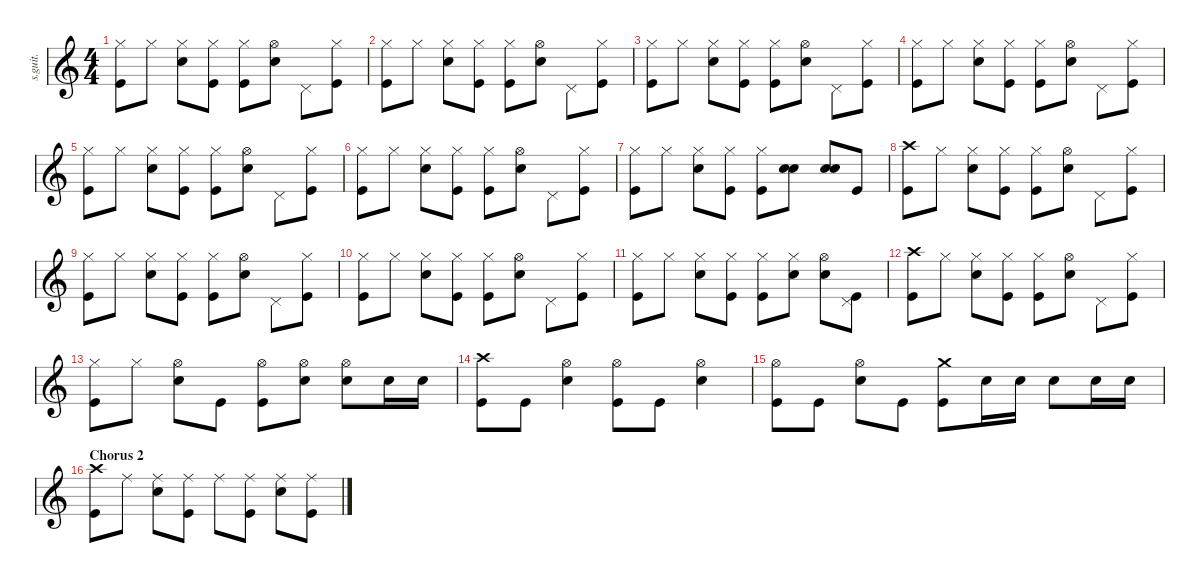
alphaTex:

\defaultSystemsLayout 4
\hideDynamics
\bracketExtendMode nobrackets
\track ("Dave Grohl" "s.guit.") {instrument percussion}
\staff {score}
\articulation defaults
\ts (4 4)
\tempo (136 hide)
\clef g2
\ks c
("Hi-Hat (closed)" "Kick (hit)").8{dy f} "Hi-Hat (closed)".8{dy ppp} ("Hi-Hat (closed)" "Snare (hit) 2").8{dy f} ("Hi-Hat (closed)" "Kick (hit)").8 ("Hi-Hat (closed)" "Kick (hit)").8 ("Hi-Hat (open)" "Snare (hit) 2").8 "Pedal Hi-Hat (hit)".8 ("Hi-Hat (closed)" "Kick (hit)").8 |
("Hi-Hat (closed)" "Kick (hit)").8 "Hi-Hat (closed)".8{dy ppp} ("Hi-Hat (closed)" "Snare (hit) 2").8{dy f} ("Hi-Hat (closed)" "Kick (hit)").8 ("Hi-Hat (closed)" "Kick (hit)").8 ("Hi-Hat (open)" "Snare (hit) 2").8 "Pedal Hi-Hat (hit)".8 ("Hi-Hat (closed)" "Kick (hit)").8 |
("Hi-Hat (closed)" "Kick (hit)").8 "Hi-Hat (closed)".8{dy ppp} ("Hi-Hat (closed)" "Snare (hit) 2").8{dy f} ("Hi-Hat (closed)" "Kick (hit)").8 ("Hi-Hat (closed)" "Kick (hit)").8 ("Hi-Hat (open)" "Snare (hit) 2").8 "Pedal Hi-Hat (hit)".8 ("Hi-Hat (closed)" "Kick (hit)").8 |
("Hi-Hat (closed)" "Kick (hit)").8 "Hi-Hat (closed)".8{dy ppp} ("Hi-Hat (closed)" "Snare (hit) 2").8{dy f} ("Hi-Hat (closed)" "Kick (hit)").8 ("Hi-Hat (closed)" "Kick (hit)").8 ("Hi-Hat (open)" "Snare (hit) 2").8 "Pedal Hi-Hat (hit)".8 ("Hi-Hat (closed)" "Kick (hit)").8 |
("Hi-Hat (closed)" "Kick (hit)").8 "Hi-Hat (closed)".8{dy ppp} ("Hi-Hat (closed)" "Snare (hit) 2").8{dy f} ("Hi-Hat (closed)" "Kick (hit)").8 ("Hi-Hat (closed)" "Kick (hit)").8 ("Hi-Hat (open)" "Snare (hit) 2").8 "Pedal Hi-Hat (hit)".8 ("Hi-Hat (closed)" "Kick (hit)").8 |
("Hi-Hat (closed)" "Kick (hit)").8 "Hi-Hat (closed)".8{dy ppp} ("Hi-Hat (closed)" "Snare (hit) 2").8{dy f} ("Hi-Hat (closed)" "Kick (hit)").8 ("Hi-Hat (closed)" "Kick (hit)").8 ("Hi-Hat (open)" "Snare (hit) 2").8 "Pedal Hi-Hat (hit)".8 ("Hi-Hat (closed)" "Kick (hit)").8 |
("Hi-Hat (closed)" "Kick (hit)").8 "Hi-Hat (closed)".8{dy ppp} ("Hi-Hat (closed)" "Snare (hit) 2").8{dy f} ("Hi-Hat (closed)" "Kick (hit)").8 ("Hi-Hat (closed)" "Kick (hit)").8 ("Snare (hit) 2" "Snare (hit) 2").8{bd 30} ("Snare (hit) 2" "Snare (hit) 2").8{bd 30} "Kick (hit)".8 |
("Crash high (hit)" "Kick (hit)").8 "Hi-Hat (closed)".8{dy ppp} ("Hi-Hat (closed)" "Snare (hit) 2").8{dy f} ("Hi-Hat (closed)" "Kick (hit)").8 ("Hi-Hat (closed)" "Kick (hit)").8 ("Hi-Hat (open)" "Snare (hit) 2").8 "Pedal Hi-Hat (hit)".8 ("Hi-Hat (closed)" "Kick (hit)").8 |
("Hi-Hat (closed)" "Kick (hit)").8 "Hi-Hat (closed)".8{dy ppp} ("Hi-Hat (closed)" "Snare (hit) 2").8{dy f} ("Hi-Hat (closed)" "Kick (hit)").8 ("Hi-Hat (closed)" "Kick (hit)").8 ("Hi-Hat (open)" "Snare (hit) 2").8 "Pedal Hi-Hat (hit)".8 ("Hi-Hat (closed)" "Kick (hit)").8 |
("Hi-Hat (closed)" "Kick (hit)").8 "Hi-Hat (closed)".8{dy ppp} ("Hi-Hat (closed)" "Snare (hit) 2").8{dy f} ("Hi-Hat (closed)" "Kick (hit)").8 ("Hi-Hat (closed)" "Kick (hit)").8 ("Hi-Hat (open)" "Snare (hit) 2").8 "Pedal Hi-Hat (hit)".8 ("Hi-Hat (closed)" "Kick (hit)").8 |
("Hi-Hat (closed)" "Kick (hit)").8 "Hi-Hat (closed)".8{dy ppp} ("Hi-Hat (closed)" "Snare (hit) 2").8{dy f} ("Hi-Hat (closed)" "Kick (hit)").8 ("Hi-Hat (closed)" "Kick (hit)").8 ("Hi-Hat (closed)" "Snare (hit) 2").8 ("Hi-Hat (open)" "Snare (hit) 2").8 ("Pedal Hi-Hat (hit)" "Kick (hit)").8 |
("Crash high (hit)" "Kick (hit)").8 "Hi-Hat (closed)".8{dy ppp} ("Hi-Hat (closed)" "Snare (hit) 2").8{dy f} ("Hi-Hat (closed)" "Kick (hit)").8 ("Hi-Hat (closed)" "Kick (hit)").8 ("Hi-Hat (open)" "Snare (hit) 2").8 "Pedal Hi-Hat (hit)".8 ("Hi-Hat (closed)" "Kick (hit)").8 |
("Hi-Hat (closed)" "Kick (hit)").8 "Hi-Hat (closed)".8{dy ppp} ("Hi-Hat (open)" "Snare (hit) 2").8{dy f} "Kick (hit)".8 ("Hi-Hat (open)" "Kick (hit)").8 ("Hi-Hat (open)" "Snare (hit) 2").8 ("Hi-Hat (open)" "Snare (hit) 2").8 "Snare (hit) 2".16 "Snare (hit) 2".16 |
("Crash high (hit)" "Kick (hit)").8 "Kick (hit)".8 ("Hi-Hat (open)" "Snare (hit) 2").4 ("Hi-Hat (open)" "Kick (hit)").8 "Kick (hit)".8 ("Hi-Hat (open)" "Snare (hit) 2").4 |
("Hi-Hat (open)" "Kick (hit)").8 "Kick (hit)".8 ("Hi-Hat (open)" "Snare (hit) 2").8 "Kick (hit)".8 ("Crash medium (hit)" "Kick (hit)").8 "Snare (hit) 2".16 "Snare (hit) 2".16 "Snare (hit) 2".8 "Snare (hit) 2".16 "Snare (hit) 2".16 |
\section ("" "Chorus 2")
("Crash high (hit)" "Kick (hit)").8 "Ride (middle)".8{dy ppp} ("Ride (middle)" "Snare (hit) 2").8{dy f} ("Ride (middle)" "Kick (hit)").8 "Ride (middle)".8 ("Ride (middle)" "Kick (hit)").8 ("Ride (middle)" "Snare (hit) 2").8 ("Ride (middle)" "Kick (hit)").8
